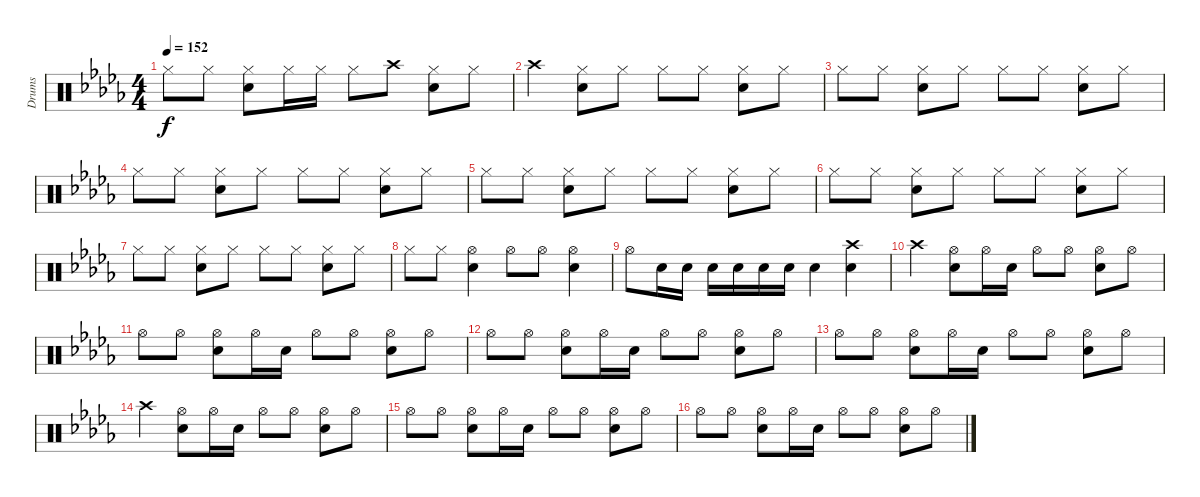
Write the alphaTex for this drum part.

\track ("Drums" "Drums") {instrument percussion}
\staff {score}
\articulation defaults
\ts (4 4)
\tempo 152
\clef neutral
\ks db "Hi-Hat (closed)".8{dy f} "Hi-Hat (closed)".8
("Hi-Hat (closed)" "Snare (hit) 2").8 "Hi-Hat (closed)".16 "Hi-Hat (closed)".16 "Hi-Hat (closed)".8 "Crash high (hit)".8 ("Hi-Hat (closed)" "Snare (hit) 2").8 "Hi-Hat (closed)".8 |
"Crash high (hit)".4 ("Hi-Hat (closed)" "Snare (hit) 2").8 "Hi-Hat (closed)".8 "Hi-Hat (closed)".8 "Hi-Hat (closed)".8 ("Hi-Hat (closed)" "Snare (hit) 2").8 "Hi-Hat (closed)".8 |
"Hi-Hat (closed)".8 "Hi-Hat (closed)".8 ("Hi-Hat (closed)" "Snare (hit) 2").8 "Hi-Hat (closed)".8 "Hi-Hat (closed)".8 "Hi-Hat (closed)".8 ("Hi-Hat (closed)" "Snare (hit) 2").8 "Hi-Hat (closed)".8 |
"Hi-Hat (closed)".8 "Hi-Hat (closed)".8 ("Hi-Hat (closed)" "Snare (hit) 2").8 "Hi-Hat (closed)".8 "Hi-Hat (closed)".8 "Hi-Hat (closed)".8 ("Hi-Hat (closed)" "Snare (hit) 2").8 "Hi-Hat (closed)".8 |
"Hi-Hat (closed)".8 "Hi-Hat (closed)".8 ("Hi-Hat (closed)" "Snare (hit) 2").8 "Hi-Hat (closed)".8 "Hi-Hat (closed)".8 "Hi-Hat (closed)".8 ("Hi-Hat (closed)" "Snare (hit) 2").8 "Hi-Hat (closed)".8 |
"Hi-Hat (closed)".8 "Hi-Hat (closed)".8 ("Hi-Hat (closed)" "Snare (hit) 2").8 "Hi-Hat (closed)".8 "Hi-Hat (closed)".8 "Hi-Hat (closed)".8 ("Hi-Hat (closed)" "Snare (hit) 2").8 "Hi-Hat (closed)".8 |
"Hi-Hat (closed)".8 "Hi-Hat (closed)".8 ("Hi-Hat (closed)" "Snare (hit) 2").8 "Hi-Hat (closed)".8 "Hi-Hat (closed)".8 "Hi-Hat (closed)".8 ("Hi-Hat (closed)" "Snare (hit) 2").8 "Hi-Hat (closed)".8 |
"Hi-Hat (closed)".8 "Hi-Hat (closed)".8 ("Hi-Hat (open)" "Snare (hit) 2").4 "Hi-Hat (open)".8 "Hi-Hat (open)".8 ("Hi-Hat (open)" "Snare (hit) 2").4 |
"Hi-Hat (open)".8 "Snare (hit) 2".16 "Snare (hit) 2".16 "Snare (hit) 2".16 "Snare (hit) 2".16 "Snare (hit) 2".16 "Snare (hit) 2".16 "Snare (hit) 2".4 ("Crash high (hit)" "Snare (hit) 2").4 |
"Crash high (hit)".4 ("Hi-Hat (open)" "Snare (hit) 2").8 "Hi-Hat (open)".16 "Snare (hit) 2".16 "Hi-Hat (open)".8 "Hi-Hat (open)".8 ("Hi-Hat (open)" "Snare (hit) 2").8 "Hi-Hat (open)".8 |
"Hi-Hat (open)".8 "Hi-Hat (open)".8 ("Hi-Hat (open)" "Snare (hit) 2").8 "Hi-Hat (open)".16 "Snare (hit) 2".16 "Hi-Hat (open)".8 "Hi-Hat (open)".8 ("Hi-Hat (open)" "Snare (hit) 2").8 "Hi-Hat (open)".8 |
"Hi-Hat (open)".8 "Hi-Hat (open)".8 ("Hi-Hat (open)" "Snare (hit) 2").8 "Hi-Hat (open)".16 "Snare (hit) 2".16 "Hi-Hat (open)".8 "Hi-Hat (open)".8 ("Hi-Hat (open)" "Snare (hit) 2").8 "Hi-Hat (open)".8 |
"Hi-Hat (open)".8 "Hi-Hat (open)".8 ("Hi-Hat (open)" "Snare (hit) 2").8 "Hi-Hat (open)".16 "Snare (hit) 2".16 "Hi-Hat (open)".8 "Hi-Hat (open)".8 ("Hi-Hat (open)" "Snare (hit) 2").8 "Hi-Hat (open)".8 |
"Crash high (hit)".4 ("Hi-Hat (open)" "Snare (hit) 2").8 "Hi-Hat (open)".16 "Snare (hit) 2".16 "Hi-Hat (open)".8 "Hi-Hat (open)".8 ("Hi-Hat (open)" "Snare (hit) 2").8 "Hi-Hat (open)".8 |
"Hi-Hat (open)".8 "Hi-Hat (open)".8 ("Hi-Hat (open)" "Snare (hit) 2").8 "Hi-Hat (open)".16 "Snare (hit) 2".16 "Hi-Hat (open)".8 "Hi-Hat (open)".8 ("Hi-Hat (open)" "Snare (hit) 2").8 "Hi-Hat (open)".8 |
"Hi-Hat (open)".8 "Hi-Hat (open)".8 ("Hi-Hat (open)" "Snare (hit) 2").8 "Hi-Hat (open)".16 "Snare (hit) 2".16 "Hi-Hat (open)".8 "Hi-Hat (open)".8 ("Hi-Hat (open)" "Snare (hit) 2").8 "Hi-Hat (open)".8
